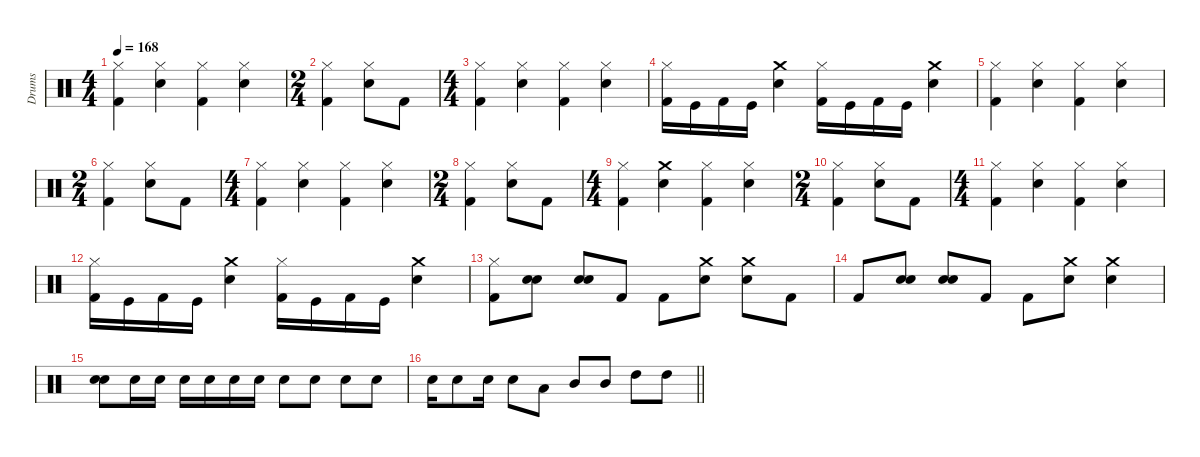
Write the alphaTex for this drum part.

\defaultSystemsLayout 4
\hideDynamics
\bracketExtendMode nobrackets
\firstSystemTrackNameMode fullname
\otherSystemsTrackNameOrientation horizontal
\track ("Drums" "drm.") {instrument percussion}
\staff {score}
\articulation defaults
\ts (4 4)
\beaming (8 2 2 2 2)
\tempo 168
\clef neutral
\ks c
("Kick (hit) 2" "Hi-Hat (closed)").4{dy fff beam Down} ("Snare (hit) 2" "Hi-Hat (closed)").4{beam Down} ("Kick (hit) 2" "Hi-Hat (closed)").4{beam Down} ("Snare (hit) 2" "Hi-Hat (closed)").4{beam Down} |
\ts (2 4)
\beaming (8 2 2)
("Hi-Hat (closed)" "Kick (hit) 2").4{beam Down} ("Snare (hit) 2" "Hi-Hat (closed)").8{beam Down} "Kick (hit) 2".8{beam Down} |
\ts (4 4)
\beaming (8 2 2 2 2)
("Kick (hit) 2" "Hi-Hat (closed)").4{beam Down} ("Snare (hit) 2" "Hi-Hat (closed)").4{beam Down} ("Kick (hit) 2" "Hi-Hat (closed)").4{beam Down} ("Snare (hit) 2" "Hi-Hat (closed)").4{beam Down} |
("Hi-Hat (closed)" "Kick (hit) 2").16{beam Down} "Kick (hit)".16{beam Down} "Kick (hit) 2".16{beam Down} "Kick (hit)".16{beam Down} ("Crash medium (hit)" "Snare (hit) 2").4{beam Down} ("Hi-Hat (closed)" "Kick (hit) 2").16{beam Down} "Kick (hit)".16{beam Down} "Kick (hit) 2".16{beam Down} "Kick (hit)".16{beam Down} ("Crash medium (hit)" "Snare (hit) 2").4{beam Down} |
("Kick (hit) 2" "Hi-Hat (closed)").4{beam Down} ("Snare (hit) 2" "Hi-Hat (closed)").4{beam Down} ("Kick (hit) 2" "Hi-Hat (closed)").4{beam Down} ("Snare (hit) 2" "Hi-Hat (closed)").4{beam Down} |
\ts (2 4)
\beaming (8 2 2)
("Hi-Hat (closed)" "Kick (hit) 2").4{beam Down} ("Snare (hit) 2" "Hi-Hat (closed)").8{beam Down} "Kick (hit) 2".8{beam Down} |
\ts (4 4)
\beaming (8 2 2 2 2)
("Kick (hit) 2" "Hi-Hat (closed)").4{beam Down} ("Snare (hit) 2" "Hi-Hat (closed)").4{beam Down} ("Kick (hit) 2" "Hi-Hat (closed)").4{beam Down} ("Snare (hit) 2" "Hi-Hat (closed)").4{beam Down} |
\ts (2 4)
\beaming (8 2 2)
("Hi-Hat (closed)" "Kick (hit) 2").4{beam Down} ("Snare (hit) 2" "Hi-Hat (closed)").8{beam Down} "Kick (hit) 2".8{beam Down} |
\ts (4 4)
\beaming (8 2 2 2 2)
("Kick (hit) 2" "Hi-Hat (closed)").4{beam Down} ("Crash medium (hit)" "Snare (hit) 2").4{beam Down} ("Kick (hit) 2" "Hi-Hat (closed)").4{beam Down} ("Snare (hit) 2" "Hi-Hat (closed)").4{beam Down} |
\ts (2 4)
\beaming (8 2 2)
("Hi-Hat (closed)" "Kick (hit) 2").4{beam Down} ("Snare (hit) 2" "Hi-Hat (closed)").8{beam Down} "Kick (hit) 2".8{beam Down} |
\ts (4 4)
\beaming (8 2 2 2 2)
("Kick (hit) 2" "Hi-Hat (closed)").4{beam Down} ("Snare (hit) 2" "Hi-Hat (closed)").4{beam Down} ("Kick (hit) 2" "Hi-Hat (closed)").4{beam Down} ("Snare (hit) 2" "Hi-Hat (closed)").4{beam Down} |
("Hi-Hat (closed)" "Kick (hit) 2").16{beam Down} "Kick (hit)".16{beam Down} "Kick (hit) 2".16{beam Down} "Kick (hit)".16{beam Down} ("Crash medium (hit)" "Snare (hit) 2").4{beam Down} ("Hi-Hat (closed)" "Kick (hit) 2").16{beam Down} "Kick (hit)".16{beam Down} "Kick (hit) 2".16{beam Down} "Kick (hit)".16{beam Down} ("Crash medium (hit)" "Snare (hit) 2").4{beam Down} |
("Kick (hit) 2" "Hi-Hat (closed)").8{beam Down} ("Snare (hit) 2" "Snare (hit) 2").8{dy f beam Down} ("Snare (hit) 2" "Snare (hit) 2").8{beam Up} "Kick (hit) 2".8{dy fff beam Up} "Kick (hit) 2".8{beam Down} ("Snare (hit) 2" "Crash medium (hit)").8{beam Down} ("Snare (hit) 2" "Crash medium (hit)").8{beam Down} "Kick (hit) 2".8{beam Down} |
"Kick (hit) 2".8{beam Up} ("Snare (hit) 2" "Snare (hit) 2").8{dy f beam Up} ("Snare (hit) 2" "Snare (hit) 2").8{beam Up} "Kick (hit) 2".8{dy fff beam Up} "Kick (hit) 2".8{beam Down} ("Crash medium (hit)" "Snare (hit) 2").8{beam Down} ("Snare (hit) 2" "Crash medium (hit)").4{beam Down} |
("Snare (hit) 2" "Snare (hit) 2").8{dy f beam Down} "Snare (hit) 2".16{dy fff beam Down} "Snare (hit) 2".16{beam Down} "Snare (hit) 2".16{beam Down} "Snare (hit) 2".16{beam Down} "Snare (hit) 2".16{beam Down} "Snare (hit) 2".16{beam Down} "Snare (hit) 2".8{beam Down} "Snare (hit) 2".8{beam Down} "Snare (hit) 2".8{beam Down} "Snare (hit) 2".8{beam Down} |
\barLineRight lightlight "Snare (hit) 2".16{beam Down} "Snare (hit) 2".8{beam Down} "Snare (hit) 2".16{beam Down} "Snare (hit) 2".8{beam Down} "Low Tom (hit)".8{beam Down} "Mid Tom (hit)".8{beam Up} "Mid Tom (hit)".8{beam Up} "High Tom (hit)".8{beam Down} "High Tom (hit)".8{beam Down}
